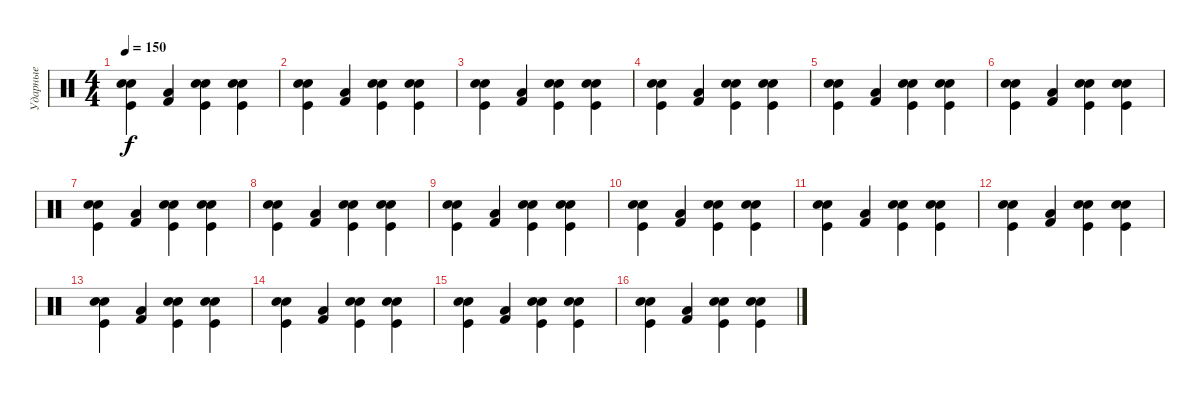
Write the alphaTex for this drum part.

\track ("Ударные" "Ударные") {instrument percussion}
\staff {score}
\articulation defaults
\ts (4 4)
\tempo 150
\clef neutral
\ks c
("Electric Snare (hit)" "Kick (hit)" "Snare (hit) 2").4{dy f} ("Kick (hit) 2" "Low Tom (hit)").4 ("Electric Snare (hit)" "Kick (hit)" "Snare (hit) 2").4 ("Electric Snare (hit)" "Kick (hit)" "Snare (hit) 2").4 |
("Electric Snare (hit)" "Kick (hit)" "Snare (hit) 2").4 ("Kick (hit) 2" "Low Tom (hit)").4 ("Electric Snare (hit)" "Kick (hit)" "Snare (hit) 2").4 ("Electric Snare (hit)" "Kick (hit)" "Snare (hit) 2").4 |
("Electric Snare (hit)" "Kick (hit)" "Snare (hit) 2").4 ("Kick (hit) 2" "Low Tom (hit)").4 ("Electric Snare (hit)" "Kick (hit)" "Snare (hit) 2").4 ("Electric Snare (hit)" "Kick (hit)" "Snare (hit) 2").4 |
("Electric Snare (hit)" "Kick (hit)" "Snare (hit) 2").4 ("Kick (hit) 2" "Low Tom (hit)").4 ("Electric Snare (hit)" "Kick (hit)" "Snare (hit) 2").4 ("Electric Snare (hit)" "Kick (hit)" "Snare (hit) 2").4 |
("Electric Snare (hit)" "Kick (hit)" "Snare (hit) 2").4 ("Kick (hit) 2" "Low Tom (hit)").4 ("Electric Snare (hit)" "Kick (hit)" "Snare (hit) 2").4 ("Electric Snare (hit)" "Kick (hit)" "Snare (hit) 2").4 |
("Electric Snare (hit)" "Kick (hit)" "Snare (hit) 2").4 ("Kick (hit) 2" "Low Tom (hit)").4 ("Electric Snare (hit)" "Kick (hit)" "Snare (hit) 2").4 ("Electric Snare (hit)" "Kick (hit)" "Snare (hit) 2").4 |
("Electric Snare (hit)" "Kick (hit)" "Snare (hit) 2").4 ("Kick (hit) 2" "Low Tom (hit)").4 ("Electric Snare (hit)" "Kick (hit)" "Snare (hit) 2").4 ("Electric Snare (hit)" "Kick (hit)" "Snare (hit) 2").4 |
("Electric Snare (hit)" "Kick (hit)" "Snare (hit) 2").4 ("Kick (hit) 2" "Low Tom (hit)").4 ("Electric Snare (hit)" "Kick (hit)" "Snare (hit) 2").4 ("Electric Snare (hit)" "Kick (hit)" "Snare (hit) 2").4 |
("Electric Snare (hit)" "Kick (hit)" "Snare (hit) 2").4 ("Kick (hit) 2" "Low Tom (hit)").4 ("Electric Snare (hit)" "Kick (hit)" "Snare (hit) 2").4 ("Electric Snare (hit)" "Kick (hit)" "Snare (hit) 2").4 |
("Electric Snare (hit)" "Kick (hit)" "Snare (hit) 2").4 ("Kick (hit) 2" "Low Tom (hit)").4 ("Electric Snare (hit)" "Kick (hit)" "Snare (hit) 2").4 ("Electric Snare (hit)" "Kick (hit)" "Snare (hit) 2").4 |
("Electric Snare (hit)" "Kick (hit)" "Snare (hit) 2").4 ("Kick (hit) 2" "Low Tom (hit)").4 ("Electric Snare (hit)" "Kick (hit)" "Snare (hit) 2").4 ("Electric Snare (hit)" "Kick (hit)" "Snare (hit) 2").4 |
("Electric Snare (hit)" "Kick (hit)" "Snare (hit) 2").4 ("Kick (hit) 2" "Low Tom (hit)").4 ("Electric Snare (hit)" "Kick (hit)" "Snare (hit) 2").4 ("Electric Snare (hit)" "Kick (hit)" "Snare (hit) 2").4 |
("Electric Snare (hit)" "Kick (hit)" "Snare (hit) 2").4 ("Kick (hit) 2" "Low Tom (hit)").4 ("Electric Snare (hit)" "Kick (hit)" "Snare (hit) 2").4 ("Electric Snare (hit)" "Kick (hit)" "Snare (hit) 2").4 |
("Electric Snare (hit)" "Kick (hit)" "Snare (hit) 2").4 ("Kick (hit) 2" "Low Tom (hit)").4 ("Electric Snare (hit)" "Kick (hit)" "Snare (hit) 2").4 ("Electric Snare (hit)" "Kick (hit)" "Snare (hit) 2").4 |
("Electric Snare (hit)" "Kick (hit)" "Snare (hit) 2").4 ("Kick (hit) 2" "Low Tom (hit)").4 ("Electric Snare (hit)" "Kick (hit)" "Snare (hit) 2").4 ("Electric Snare (hit)" "Kick (hit)" "Snare (hit) 2").4 |
("Electric Snare (hit)" "Kick (hit)" "Snare (hit) 2").4 ("Kick (hit) 2" "Low Tom (hit)").4 ("Electric Snare (hit)" "Kick (hit)" "Snare (hit) 2").4 ("Electric Snare (hit)" "Kick (hit)" "Snare (hit) 2").4
